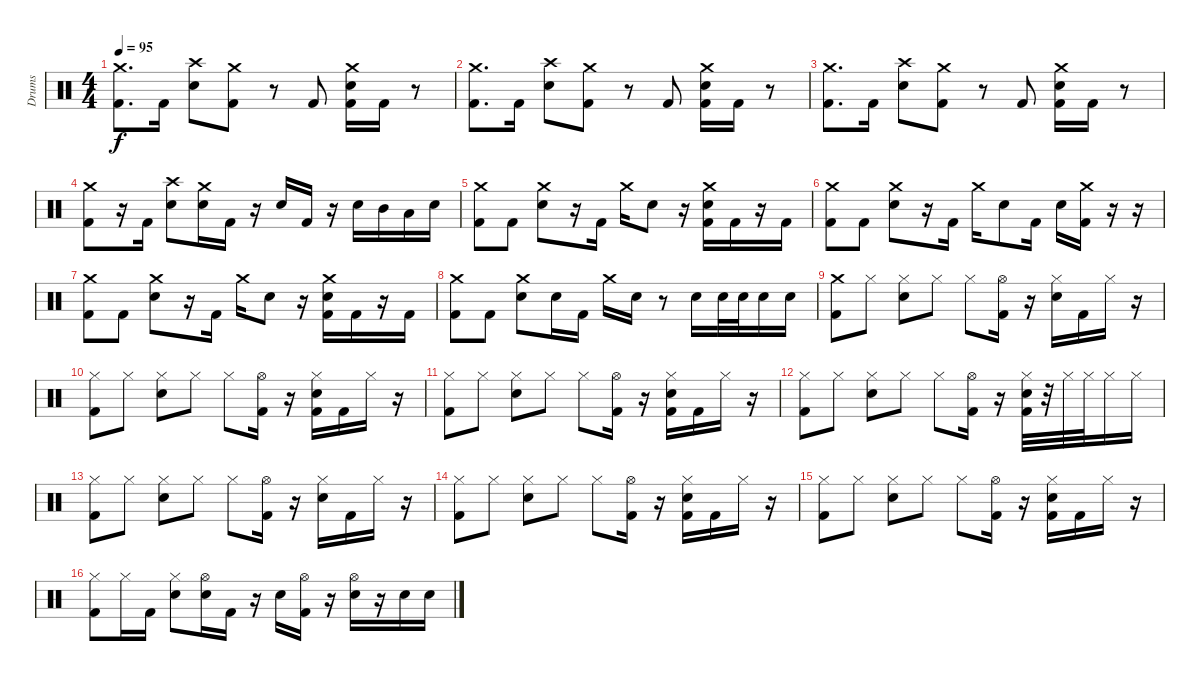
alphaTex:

\track ("Drums" "Drums") {instrument percussion}
\staff {score}
\articulation defaults
\ts (4 4)
\tempo 95
\clef neutral
\ks c
("Crash medium (hit)" "Kick (hit) 2").8{d dy f} "Kick (hit) 2".16 ("Crash high (hit)" "Electric Snare (hit)").8 ("Crash medium (hit)" "Kick (hit) 2").8 r.8 "Kick (hit) 2".8 ("Crash medium (hit)" "Electric Snare (hit)" "Kick (hit) 2").16 "Kick (hit) 2".16 r.8 |
("Crash medium (hit)" "Kick (hit) 2").8{d} "Kick (hit) 2".16 ("Crash high (hit)" "Electric Snare (hit)").8 ("Crash medium (hit)" "Kick (hit) 2").8 r.8 "Kick (hit) 2".8 ("Crash medium (hit)" "Electric Snare (hit)" "Kick (hit) 2").16 "Kick (hit) 2".16 r.8 |
("Crash medium (hit)" "Kick (hit) 2").8{d} "Kick (hit) 2".16 ("Crash high (hit)" "Electric Snare (hit)").8 ("Crash medium (hit)" "Kick (hit) 2").8 r.8 "Kick (hit) 2".8 ("Crash medium (hit)" "Electric Snare (hit)" "Kick (hit) 2").16 "Kick (hit) 2".16 r.8 |
("Crash medium (hit)" "Kick (hit) 2").8 r.16 "Kick (hit) 2".16 ("Crash high (hit)" "Electric Snare (hit)").8 ("Crash medium (hit)" "Electric Snare (hit)").16 "Kick (hit) 2".16 r.16 "Electric Snare (hit)".16 "Kick (hit) 2".16 r.16 "Electric Snare (hit)".16 "Mid Tom (hit)".16 "Low Tom (hit)".16 "Electric Snare (hit)".16 |
("Crash medium (hit)" "Kick (hit) 2").8 "Kick (hit) 2".8 ("Crash medium (hit)" "Electric Snare (hit)").8 r.16 "Kick (hit) 2".16 "Crash medium (hit)".16 "Electric Snare (hit)".8 r.16 ("Crash medium (hit)" "Electric Snare (hit)" "Kick (hit) 2").16 "Kick (hit) 2".16 r.16 "Kick (hit) 2".16 |
("Crash medium (hit)" "Kick (hit) 2").8 "Kick (hit) 2".8 ("Crash medium (hit)" "Electric Snare (hit)").8 r.16 "Kick (hit) 2".16 "Crash medium (hit)".16 "Electric Snare (hit)".8 "Kick (hit) 2".16 "Electric Snare (hit)".16 ("Crash medium (hit)" "Kick (hit) 2").16 r.16 r.16 |
("Crash medium (hit)" "Kick (hit) 2").8 "Kick (hit) 2".8 ("Crash medium (hit)" "Electric Snare (hit)").8 r.16 "Kick (hit) 2".16 "Crash medium (hit)".16 "Electric Snare (hit)".8 r.16 ("Crash medium (hit)" "Electric Snare (hit)" "Kick (hit) 2").16 "Kick (hit) 2".16 r.16 "Kick (hit) 2".16 |
("Crash medium (hit)" "Kick (hit) 2").8 "Kick (hit) 2".8 ("Crash medium (hit)" "Electric Snare (hit)").8 "Electric Snare (hit)".16 "Kick (hit) 2".16 "Crash medium (hit)".16 "Electric Snare (hit)".16 r.8 "Electric Snare (hit)".16 "Electric Snare (hit)".32 "Electric Snare (hit)".32 "Electric Snare (hit)".16 "Electric Snare (hit)".16 |
("Crash medium (hit)" "Kick (hit) 2").8 "Hi-Hat (closed)".8 ("Hi-Hat (closed)" "Electric Snare (hit)").8 "Hi-Hat (closed)".8 "Hi-Hat (closed)".8 ("Hi-Hat (open)" "Kick (hit) 2").16 r.16 ("Hi-Hat (closed)" "Electric Snare (hit)").16 "Kick (hit) 2".16 "Hi-Hat (closed)".16 r.16 |
("Hi-Hat (closed)" "Kick (hit) 2").8 "Hi-Hat (closed)".8 ("Hi-Hat (closed)" "Electric Snare (hit)").8 "Hi-Hat (closed)".8 "Hi-Hat (closed)".8 ("Hi-Hat (open)" "Kick (hit) 2").16 r.16 ("Hi-Hat (closed)" "Electric Snare (hit)" "Kick (hit) 2").16 "Kick (hit) 2".16 "Hi-Hat (closed)".16 r.16 |
("Hi-Hat (closed)" "Kick (hit) 2").8 "Hi-Hat (closed)".8 ("Hi-Hat (closed)" "Electric Snare (hit)").8 "Hi-Hat (closed)".8 "Hi-Hat (closed)".8 ("Hi-Hat (open)" "Kick (hit) 2").16 r.16 ("Hi-Hat (closed)" "Electric Snare (hit)" "Kick (hit) 2").16 "Kick (hit) 2".16 "Hi-Hat (closed)".16 r.16 |
("Hi-Hat (closed)" "Kick (hit) 2").8 "Hi-Hat (closed)".8 ("Hi-Hat (closed)" "Electric Snare (hit)").8 "Hi-Hat (closed)".8 "Hi-Hat (closed)".8 ("Hi-Hat (open)" "Kick (hit) 2").16 r.16 ("Hi-Hat (closed)" "Electric Snare (hit)" "Kick (hit) 2").32 r.32 "Hi-Hat (closed)".32 "Hi-Hat (closed)".32 "Hi-Hat (closed)".16 "Hi-Hat (closed)".16 |
("Hi-Hat (closed)" "Kick (hit) 2").8 "Hi-Hat (closed)".8 ("Hi-Hat (closed)" "Electric Snare (hit)").8 "Hi-Hat (closed)".8 "Hi-Hat (closed)".8 ("Hi-Hat (open)" "Kick (hit) 2").16 r.16 ("Hi-Hat (closed)" "Electric Snare (hit)").16 "Kick (hit) 2".16 "Hi-Hat (closed)".16 r.16 |
("Hi-Hat (closed)" "Kick (hit) 2").8 "Hi-Hat (closed)".8 ("Hi-Hat (closed)" "Electric Snare (hit)").8 "Hi-Hat (closed)".8 "Hi-Hat (closed)".8 ("Hi-Hat (open)" "Kick (hit) 2").16 r.16 ("Hi-Hat (closed)" "Electric Snare (hit)" "Kick (hit) 2").16 "Kick (hit) 2".16 "Hi-Hat (closed)".16 r.16 |
("Hi-Hat (closed)" "Kick (hit) 2").8 "Hi-Hat (closed)".8 ("Hi-Hat (closed)" "Electric Snare (hit)").8 "Hi-Hat (closed)".8 "Hi-Hat (closed)".8 ("Hi-Hat (open)" "Kick (hit) 2").16 r.16 ("Hi-Hat (closed)" "Electric Snare (hit)" "Kick (hit) 2").16 "Kick (hit) 2".16 "Hi-Hat (closed)".16 r.16 |
("Hi-Hat (closed)" "Kick (hit) 2").8 "Hi-Hat (closed)".16 "Kick (hit) 2".16 ("Hi-Hat (closed)" "Electric Snare (hit)").8 ("Hi-Hat (open)" "Electric Snare (hit)").16 "Kick (hit) 2".16 r.16 "Electric Snare (hit)".16 ("Hi-Hat (open)" "Kick (hit) 2").16 r.16 ("Hi-Hat (open)" "Electric Snare (hit)").16 r.16 "Electric Snare (hit)".16 "Electric Snare (hit)".16
